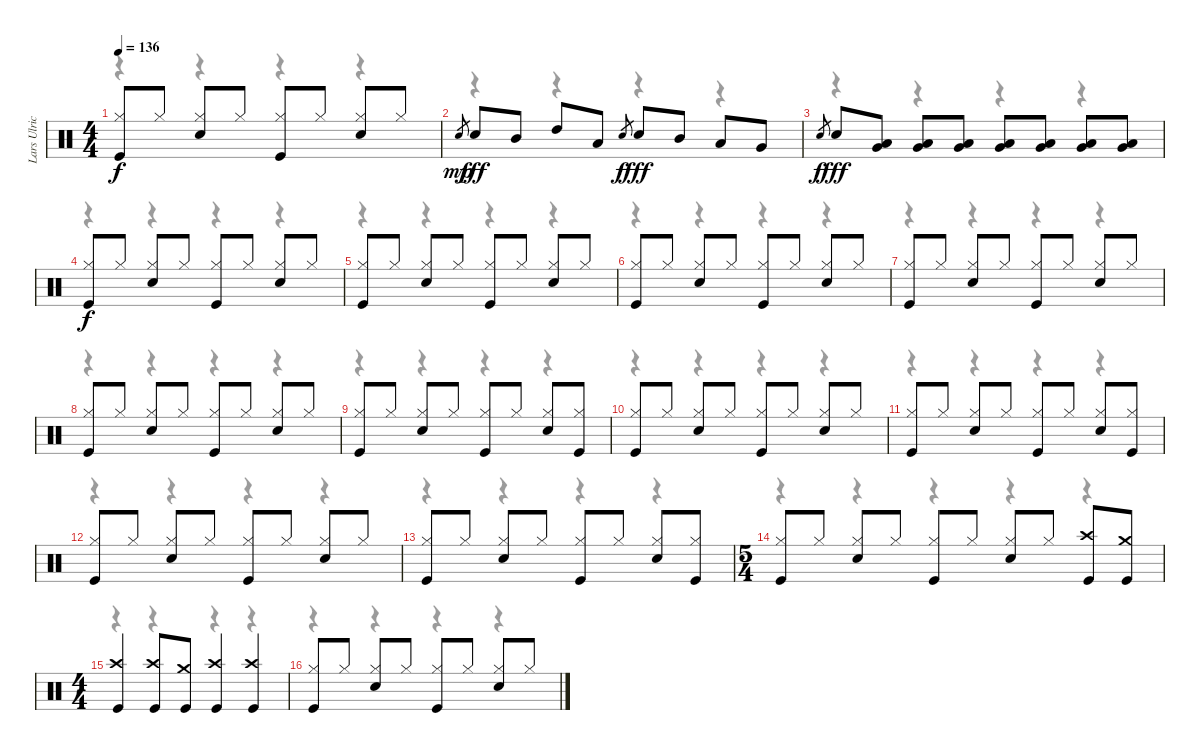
\track ("Lars Ulrich" "Lars Ulric") {instrument percussion}
\staff {score}
\articulation defaults
\voice
\ts (4 4)
\tempo 136
\clef neutral
\ks c
("Hi-Hat (closed)" "Kick (hit)").8{dy f} "Hi-Hat (closed)".8 ("Hi-Hat (closed)" "Snare (hit) 2").8 "Hi-Hat (closed)".8 ("Hi-Hat (closed)" "Kick (hit)").8 "Hi-Hat (closed)".8 ("Hi-Hat (closed)" "Snare (hit) 2").8 "Hi-Hat (closed)".8 |
"Snare (hit)".8{gr dy mp} "Snare (hit) 2".8{dy fff} "Mid Tom (hit)".8 "High Tom (hit)".8 "Low Tom (hit)".8 "Snare (hit)".8{gr dy f} "Snare (hit) 2".8{dy fff} "Mid Tom (hit)".8 "Low Tom (hit)".8 "Very Low Tom (hit)".8 |
"Snare (hit)".8{gr dy f} "Snare (hit) 2".8{dy fff} ("Low Tom (hit)" "Very Low Tom (hit)").8 ("Low Tom (hit)" "Very Low Tom (hit)").8 ("Low Tom (hit)" "Very Low Tom (hit)").8 ("Low Tom (hit)" "Very Low Tom (hit)").8 ("Very Low Tom (hit)" "Low Floor Tom (hit)").8 ("Very Low Tom (hit)" "Low Floor Tom (hit)").8 ("Very Low Tom (hit)" "Low Floor Tom (hit)").8 |
("Hi-Hat (closed)" "Kick (hit)").8{dy f} "Hi-Hat (closed)".8 ("Hi-Hat (closed)" "Snare (hit) 2").8 "Hi-Hat (closed)".8 ("Hi-Hat (closed)" "Kick (hit)").8 "Hi-Hat (closed)".8 ("Hi-Hat (closed)" "Snare (hit) 2").8 "Hi-Hat (closed)".8 |
("Hi-Hat (closed)" "Kick (hit)").8 "Hi-Hat (closed)".8 ("Hi-Hat (closed)" "Snare (hit) 2").8 "Hi-Hat (closed)".8 ("Hi-Hat (closed)" "Kick (hit)").8 "Hi-Hat (closed)".8 ("Hi-Hat (closed)" "Snare (hit) 2").8 "Hi-Hat (closed)".8 |
("Hi-Hat (closed)" "Kick (hit)").8 "Hi-Hat (closed)".8 ("Hi-Hat (closed)" "Snare (hit) 2").8 "Hi-Hat (closed)".8 ("Hi-Hat (closed)" "Kick (hit)").8 "Hi-Hat (closed)".8 ("Hi-Hat (closed)" "Snare (hit) 2").8 "Hi-Hat (closed)".8 |
("Hi-Hat (closed)" "Kick (hit)").8 "Hi-Hat (closed)".8 ("Hi-Hat (closed)" "Snare (hit) 2").8 "Hi-Hat (closed)".8 ("Hi-Hat (closed)" "Kick (hit)").8 "Hi-Hat (closed)".8 ("Hi-Hat (closed)" "Snare (hit) 2").8 "Hi-Hat (closed)".8 |
("Hi-Hat (closed)" "Kick (hit)").8 "Hi-Hat (closed)".8 ("Hi-Hat (closed)" "Snare (hit) 2").8 "Hi-Hat (closed)".8 ("Hi-Hat (closed)" "Kick (hit)").8 "Hi-Hat (closed)".8 ("Hi-Hat (closed)" "Snare (hit) 2").8 "Hi-Hat (closed)".8 |
("Hi-Hat (closed)" "Kick (hit)").8 "Hi-Hat (closed)".8 ("Hi-Hat (closed)" "Snare (hit) 2").8 "Hi-Hat (closed)".8 ("Hi-Hat (closed)" "Kick (hit)").8 "Hi-Hat (closed)".8 ("Hi-Hat (closed)" "Snare (hit) 2").8 ("Hi-Hat (closed)" "Kick (hit)").8 |
("Hi-Hat (closed)" "Kick (hit)").8 "Hi-Hat (closed)".8 ("Hi-Hat (closed)" "Snare (hit) 2").8 "Hi-Hat (closed)".8 ("Hi-Hat (closed)" "Kick (hit)").8 "Hi-Hat (closed)".8 ("Hi-Hat (closed)" "Snare (hit) 2").8 "Hi-Hat (closed)".8 |
("Hi-Hat (closed)" "Kick (hit)").8 "Hi-Hat (closed)".8 ("Hi-Hat (closed)" "Snare (hit) 2").8 "Hi-Hat (closed)".8 ("Hi-Hat (closed)" "Kick (hit)").8 "Hi-Hat (closed)".8 ("Hi-Hat (closed)" "Snare (hit) 2").8 ("Hi-Hat (closed)" "Kick (hit)").8 |
("Hi-Hat (closed)" "Kick (hit)").8 "Hi-Hat (closed)".8 ("Hi-Hat (closed)" "Snare (hit) 2").8 "Hi-Hat (closed)".8 ("Hi-Hat (closed)" "Kick (hit)").8 "Hi-Hat (closed)".8 ("Hi-Hat (closed)" "Snare (hit) 2").8 "Hi-Hat (closed)".8 |
("Hi-Hat (closed)" "Kick (hit)").8 "Hi-Hat (closed)".8 ("Hi-Hat (closed)" "Snare (hit) 2").8 "Hi-Hat (closed)".8 ("Hi-Hat (closed)" "Kick (hit)").8 "Hi-Hat (closed)".8 ("Hi-Hat (closed)" "Snare (hit) 2").8 ("Hi-Hat (closed)" "Kick (hit)").8 |
\ts (5 4)
("Hi-Hat (closed)" "Kick (hit)").8 "Hi-Hat (closed)".8 ("Hi-Hat (closed)" "Snare (hit) 2").8 "Hi-Hat (closed)".8 ("Hi-Hat (closed)" "Kick (hit)").8 "Hi-Hat (closed)".8 ("Hi-Hat (closed)" "Snare (hit) 2").8 "Hi-Hat (closed)".8 ("Crash high (hit)" "Kick (hit)").8 ("Crash medium (hit)" "Kick (hit)").8 |
\ts (4 4)
("Crash high (hit)" "Kick (hit)").4 ("Crash high (hit)" "Kick (hit)").8 ("Crash medium (hit)" "Kick (hit)").8 ("Crash high (hit)" "Kick (hit)").4 ("Crash high (hit)" "Kick (hit)").4 |
("Hi-Hat (closed)" "Kick (hit)").8 "Hi-Hat (closed)".8 ("Hi-Hat (closed)" "Snare (hit) 2").8 "Hi-Hat (closed)".8 ("Hi-Hat (closed)" "Kick (hit)").8 "Hi-Hat (closed)".8 ("Hi-Hat (closed)" "Snare (hit) 2").8 "Hi-Hat (closed)".8
\voice
\clef neutral
\ottava regular
\simile none
\ks c
r.4{dy f} r.4 r.4 r.4 |
r.4 r.4 r.4 r.4 |
r.4 r.4 r.4 r.4 |
r.4 r.4 r.4 r.4 |
r.4 r.4 r.4 r.4 |
r.4 r.4 r.4 r.4 |
r.4 r.4 r.4 r.4 |
r.4 r.4 r.4 r.4 |
r.4 r.4 r.4 r.4 |
r.4 r.4 r.4 r.4 |
r.4 r.4 r.4 r.4 |
r.4 r.4 r.4 r.4 |
r.4 r.4 r.4 r.4 |
r.4 r.4 r.4 r.4 r.4 |
r.4 r.4 r.4 r.4 |
r.4 r.4 r.4 r.4
